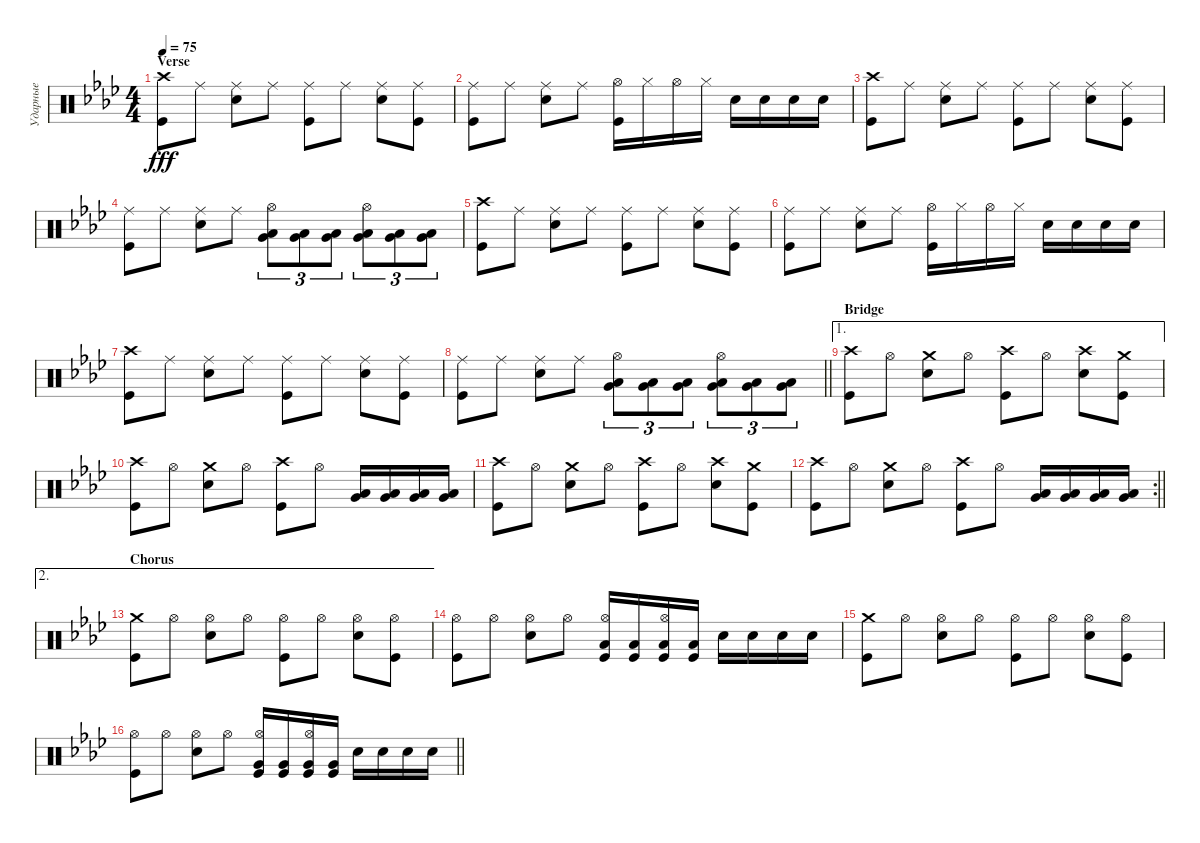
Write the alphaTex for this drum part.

\track ("Ударные" "Ударные") {instrument percussion}
\staff {score}
\articulation defaults
\ts (4 4)
\section ("" "Verse")
\tempo 75
\clef neutral
\ks fminor
("Crash high (hit)" "Kick (hit)").8{dy fff} "Ride (middle)".8 ("Ride (middle)" "Snare (hit) 2").8 "Ride (middle)".8 ("Ride (middle)" "Kick (hit)").8 "Ride (middle)".8 ("Ride (middle)" "Snare (hit) 2").8 ("Ride (middle)" "Kick (hit)").8 |
("Ride (middle)" "Kick (hit)").8 "Ride (middle)".8 ("Ride (middle)" "Snare (hit) 2").8 "Ride (middle)".8 ("Hi-Hat (open)" "Kick (hit)").16 "Hi-Hat (closed)".16 "Hi-Hat (open)".16 "Hi-Hat (closed)".16 "Snare (hit) 2".16 "Snare (hit) 2".16 "Snare (hit) 2".16 "Snare (hit) 2".16 |
("Crash high (hit)" "Kick (hit)").8 "Ride (middle)".8 ("Ride (middle)" "Snare (hit) 2").8 "Ride (middle)".8 ("Ride (middle)" "Kick (hit)").8 "Ride (middle)".8 ("Ride (middle)" "Snare (hit) 2").8 ("Ride (middle)" "Kick (hit)").8 |
("Ride (middle)" "Kick (hit)").8 "Ride (middle)".8 ("Ride (middle)" "Snare (hit) 2").8 "Ride (middle)".8 ("Hi-Hat (open)" "Low Tom (hit)" "Very Low Tom (hit)").8{tu (3 2)} ("Low Tom (hit)" "Very Low Tom (hit)").8{tu (3 2)} ("Low Tom (hit)" "Very Low Tom (hit)").8{tu (3 2)} ("Hi-Hat (open)" "Very Low Tom (hit)" "Low Floor Tom (hit)").8{tu (3 2)} ("Very Low Tom (hit)" "Low Floor Tom (hit)").8{tu (3 2)} ("Very Low Tom (hit)" "Low Floor Tom (hit)").8{tu (3 2)} |
("Crash high (hit)" "Kick (hit)").8 "Ride (middle)".8 ("Ride (middle)" "Snare (hit) 2").8 "Ride (middle)".8 ("Ride (middle)" "Kick (hit)").8 "Ride (middle)".8 ("Ride (middle)" "Snare (hit) 2").8 ("Ride (middle)" "Kick (hit)").8 |
("Ride (middle)" "Kick (hit)").8 "Ride (middle)".8 ("Ride (middle)" "Snare (hit) 2").8 "Ride (middle)".8 ("Hi-Hat (open)" "Kick (hit)").16 "Hi-Hat (closed)".16 "Hi-Hat (open)".16 "Hi-Hat (closed)".16 "Snare (hit) 2".16 "Snare (hit) 2".16 "Snare (hit) 2".16 "Snare (hit) 2".16 |
("Crash high (hit)" "Kick (hit)").8 "Ride (middle)".8 ("Ride (middle)" "Snare (hit) 2").8 "Ride (middle)".8 ("Ride (middle)" "Kick (hit)").8 "Ride (middle)".8 ("Ride (middle)" "Snare (hit) 2").8 ("Ride (middle)" "Kick (hit)").8 |
\barLineRight lightlight
("Ride (middle)" "Kick (hit)").8 "Ride (middle)".8 ("Ride (middle)" "Snare (hit) 2").8 "Ride (middle)".8 ("Hi-Hat (open)" "Low Tom (hit)" "Very Low Tom (hit)").8{tu (3 2)} ("Low Tom (hit)" "Very Low Tom (hit)").8{tu (3 2)} ("Low Tom (hit)" "Very Low Tom (hit)").8{tu (3 2)} ("Hi-Hat (open)" "Very Low Tom (hit)" "Low Floor Tom (hit)").8{tu (3 2)} ("Very Low Tom (hit)" "Low Floor Tom (hit)").8{tu (3 2)} ("Very Low Tom (hit)" "Low Floor Tom (hit)").8{tu (3 2)} |
\ae 1
\section ("" "Bridge")
("Crash high (hit)" "Kick (hit)").8 "Hi-Hat (open)".8 ("Crash medium (hit)" "Snare (hit) 2").8 "Hi-Hat (open)".8 ("Kick (hit)" "Crash high (hit)").8 "Hi-Hat (open)".8 ("Crash high (hit)" "Snare (hit) 2").8 ("Crash medium (hit)" "Kick (hit)").8 |
("Crash high (hit)" "Kick (hit)").8 "Hi-Hat (open)".8 ("Crash medium (hit)" "Snare (hit) 2").8 "Hi-Hat (open)".8 ("Crash high (hit)" "Kick (hit)").8 "Hi-Hat (open)".8 ("Low Tom (hit)" "Very Low Tom (hit)").16 ("Low Tom (hit)" "Very Low Tom (hit)").16 ("Low Tom (hit)" "Very Low Tom (hit)").16 ("Low Tom (hit)" "Very Low Tom (hit)").16 |
("Crash high (hit)" "Kick (hit)").8 "Hi-Hat (open)".8 ("Crash medium (hit)" "Snare (hit) 2").8 "Hi-Hat (open)".8 ("Kick (hit)" "Crash high (hit)").8 "Hi-Hat (open)".8 ("Crash high (hit)" "Snare (hit) 2").8 ("Crash medium (hit)" "Kick (hit)").8 |
\rc 2
\barLineRight lightlight
("Crash high (hit)" "Kick (hit)").8 "Hi-Hat (open)".8 ("Crash medium (hit)" "Snare (hit) 2").8 "Hi-Hat (open)".8 ("Crash high (hit)" "Kick (hit)").8 "Hi-Hat (open)".8 ("Low Tom (hit)" "Very Low Tom (hit)").16 ("Low Tom (hit)" "Very Low Tom (hit)").16 ("Low Tom (hit)" "Very Low Tom (hit)").16 ("Low Tom (hit)" "Very Low Tom (hit)").16 |
\ae 2
\section ("" "Chorus")
("Crash medium (hit)" "Kick (hit)").8 "Hi-Hat (open)".8 ("Hi-Hat (open)" "Snare (hit) 2").8 "Hi-Hat (open)".8 ("Hi-Hat (open)" "Kick (hit)").8 "Hi-Hat (open)".8 ("Hi-Hat (open)" "Snare (hit) 2").8 ("Kick (hit)" "Hi-Hat (open)").8 |
("Hi-Hat (open)" "Kick (hit)").8 "Hi-Hat (open)".8 ("Hi-Hat (open)" "Snare (hit) 2").8 "Hi-Hat (open)".8 ("Hi-Hat (open)" "Low Tom (hit)" "Kick (hit)").16 ("Low Tom (hit)" "Kick (hit)").16 ("Hi-Hat (open)" "Low Tom (hit)" "Kick (hit)").16 ("Low Tom (hit)" "Kick (hit)").16 "Snare (hit) 2".16 "Snare (hit) 2".16 "Snare (hit) 2".16 "Snare (hit) 2".16 |
("Crash medium (hit)" "Kick (hit)").8 "Hi-Hat (open)".8 ("Hi-Hat (open)" "Snare (hit) 2").8 "Hi-Hat (open)".8 ("Hi-Hat (open)" "Kick (hit)").8 "Hi-Hat (open)".8 ("Hi-Hat (open)" "Snare (hit) 2").8 ("Kick (hit)" "Hi-Hat (open)").8 |
\barLineRight lightlight
("Hi-Hat (open)" "Kick (hit)").8 "Hi-Hat (open)".8 ("Hi-Hat (open)" "Snare (hit) 2").8 "Hi-Hat (open)".8 ("Hi-Hat (open)" "Very Low Tom (hit)" "Kick (hit)").16 ("Very Low Tom (hit)" "Kick (hit)").16 ("Hi-Hat (open)" "Very Low Tom (hit)" "Kick (hit)").16 ("Very Low Tom (hit)" "Kick (hit)").16 "Snare (hit) 2".16 "Snare (hit) 2".16 "Snare (hit) 2".16 "Snare (hit) 2".16
